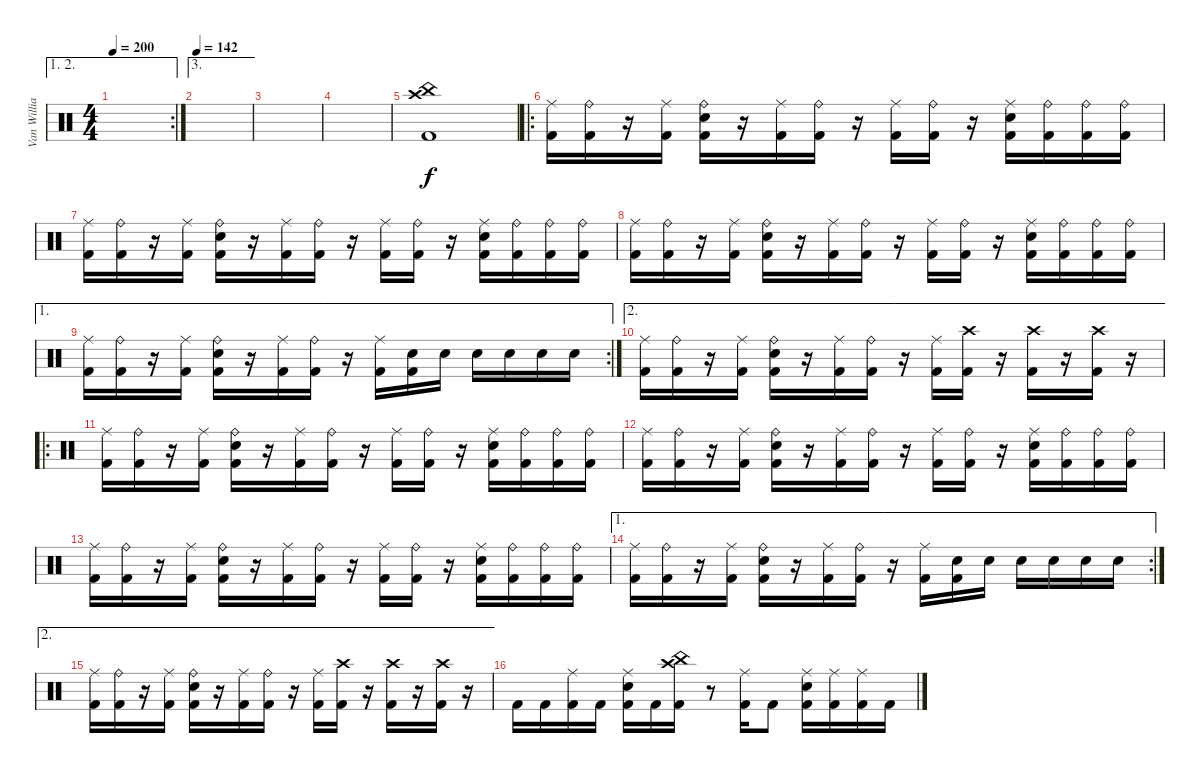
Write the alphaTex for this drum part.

\track ("Van Williams" "Van Willia") {instrument percussion}
\staff {score}
\articulation defaults
\ae (1 2)
\rc 2
\ts (4 4)
\tempo 200
\clef neutral
\ks c
|
\ae 3
\tempo 142
|
|
|
("Crash high (hit)" "China (hit)" "Kick (hit) 2").1 |
\ro
("Ride (middle)" "Kick (hit) 2").16 ("Ride (bell)" "Kick (hit) 2").16 r.16 ("Ride (middle)" "Kick (hit) 2").16 ("Ride (bell)" "Kick (hit) 2" "Electric Snare (hit)").16 r.16 ("Ride (middle)" "Kick (hit) 2").16 ("Ride (bell)" "Kick (hit) 2").16 r.16 ("Ride (middle)" "Kick (hit) 2").16 ("Ride (bell)" "Kick (hit) 2").16 r.16 ("Ride (middle)" "Kick (hit) 2" "Electric Snare (hit)").16 ("Ride (bell)" "Kick (hit) 2").16 ("Ride (bell)" "Kick (hit) 2").16 ("Ride (bell)" "Kick (hit) 2").16 |
("Ride (middle)" "Kick (hit) 2").16 ("Ride (bell)" "Kick (hit) 2").16 r.16 ("Ride (middle)" "Kick (hit) 2").16 ("Ride (bell)" "Kick (hit) 2" "Electric Snare (hit)").16 r.16 ("Ride (middle)" "Kick (hit) 2").16 ("Ride (bell)" "Kick (hit) 2").16 r.16 ("Ride (middle)" "Kick (hit) 2").16 ("Ride (bell)" "Kick (hit) 2").16 r.16 ("Ride (middle)" "Kick (hit) 2" "Electric Snare (hit)").16 ("Ride (bell)" "Kick (hit) 2").16 ("Ride (bell)" "Kick (hit) 2").16 ("Ride (bell)" "Kick (hit) 2").16 |
("Ride (middle)" "Kick (hit) 2").16 ("Ride (bell)" "Kick (hit) 2").16 r.16 ("Ride (middle)" "Kick (hit) 2").16 ("Ride (bell)" "Kick (hit) 2" "Electric Snare (hit)").16 r.16 ("Ride (middle)" "Kick (hit) 2").16 ("Ride (bell)" "Kick (hit) 2").16 r.16 ("Ride (middle)" "Kick (hit) 2").16 ("Ride (bell)" "Kick (hit) 2").16 r.16 ("Ride (middle)" "Kick (hit) 2" "Electric Snare (hit)").16 ("Ride (bell)" "Kick (hit) 2").16 ("Ride (bell)" "Kick (hit) 2").16 ("Ride (bell)" "Kick (hit) 2").16 |
\ae 1
\rc 2
("Ride (middle)" "Kick (hit) 2").16 ("Ride (bell)" "Kick (hit) 2").16 r.16 ("Ride (middle)" "Kick (hit) 2").16 ("Ride (bell)" "Kick (hit) 2" "Electric Snare (hit)").16 r.16 ("Ride (middle)" "Kick (hit) 2").16 ("Ride (bell)" "Kick (hit) 2").16 r.16 ("Ride (middle)" "Kick (hit) 2").16 ("Kick (hit) 2" "Electric Snare (hit)").16 "Electric Snare (hit)".16 "Electric Snare (hit)".16 "Electric Snare (hit)".16 "Electric Snare (hit)".16 "Electric Snare (hit)".16 |
\ae 2
("Ride (middle)" "Kick (hit) 2").16 ("Ride (bell)" "Kick (hit) 2").16 r.16 ("Ride (middle)" "Kick (hit) 2").16 ("Ride (bell)" "Kick (hit) 2" "Electric Snare (hit)").16 r.16 ("Ride (middle)" "Kick (hit) 2").16 ("Ride (bell)" "Kick (hit) 2").16 r.16 ("Ride (middle)" "Kick (hit) 2").16 ("Crash high (hit)" "Kick (hit) 2").16 r.16 ("Crash high (hit)" "Kick (hit) 2").16 r.16 ("Crash high (hit)" "Kick (hit) 2").16 r.16 |
\ro
("Ride (middle)" "Kick (hit) 2").16 ("Ride (bell)" "Kick (hit) 2").16 r.16 ("Ride (middle)" "Kick (hit) 2").16 ("Ride (bell)" "Kick (hit) 2" "Electric Snare (hit)").16 r.16 ("Ride (middle)" "Kick (hit) 2").16 ("Ride (bell)" "Kick (hit) 2").16 r.16 ("Ride (middle)" "Kick (hit) 2").16 ("Ride (bell)" "Kick (hit) 2").16 r.16 ("Ride (middle)" "Kick (hit) 2" "Electric Snare (hit)").16 ("Ride (bell)" "Kick (hit) 2").16 ("Ride (bell)" "Kick (hit) 2").16 ("Ride (bell)" "Kick (hit) 2").16 |
("Ride (middle)" "Kick (hit) 2").16 ("Ride (bell)" "Kick (hit) 2").16 r.16 ("Ride (middle)" "Kick (hit) 2").16 ("Ride (bell)" "Kick (hit) 2" "Electric Snare (hit)").16 r.16 ("Ride (middle)" "Kick (hit) 2").16 ("Ride (bell)" "Kick (hit) 2").16 r.16 ("Ride (middle)" "Kick (hit) 2").16 ("Ride (bell)" "Kick (hit) 2").16 r.16 ("Ride (middle)" "Kick (hit) 2" "Electric Snare (hit)").16 ("Ride (bell)" "Kick (hit) 2").16 ("Ride (bell)" "Kick (hit) 2").16 ("Ride (bell)" "Kick (hit) 2").16 |
("Ride (middle)" "Kick (hit) 2").16 ("Ride (bell)" "Kick (hit) 2").16 r.16 ("Ride (middle)" "Kick (hit) 2").16 ("Ride (bell)" "Kick (hit) 2" "Electric Snare (hit)").16 r.16 ("Ride (middle)" "Kick (hit) 2").16 ("Ride (bell)" "Kick (hit) 2").16 r.16 ("Ride (middle)" "Kick (hit) 2").16 ("Ride (bell)" "Kick (hit) 2").16 r.16 ("Ride (middle)" "Kick (hit) 2" "Electric Snare (hit)").16 ("Ride (bell)" "Kick (hit) 2").16 ("Ride (bell)" "Kick (hit) 2").16 ("Ride (bell)" "Kick (hit) 2").16 |
\ae 1
\rc 2
("Ride (middle)" "Kick (hit) 2").16 ("Ride (bell)" "Kick (hit) 2").16 r.16 ("Ride (middle)" "Kick (hit) 2").16 ("Ride (bell)" "Kick (hit) 2" "Electric Snare (hit)").16 r.16 ("Ride (middle)" "Kick (hit) 2").16 ("Ride (bell)" "Kick (hit) 2").16 r.16 ("Ride (middle)" "Kick (hit) 2").16 ("Kick (hit) 2" "Electric Snare (hit)").16 "Electric Snare (hit)".16 "Electric Snare (hit)".16 "Electric Snare (hit)".16 "Electric Snare (hit)".16 "Electric Snare (hit)".16 |
\ae 2
("Ride (middle)" "Kick (hit) 2").16 ("Ride (bell)" "Kick (hit) 2").16 r.16 ("Ride (middle)" "Kick (hit) 2").16 ("Ride (bell)" "Kick (hit) 2" "Electric Snare (hit)").16 r.16 ("Ride (middle)" "Kick (hit) 2").16 ("Ride (bell)" "Kick (hit) 2").16 r.16 ("Ride (middle)" "Kick (hit) 2").16 ("Crash high (hit)" "Kick (hit) 2").16 r.16 ("Crash high (hit)" "Kick (hit) 2").16 r.16 ("Crash high (hit)" "Kick (hit) 2").16 r.16 |
"Kick (hit) 2".16 "Kick (hit) 2".16 ("Ride (middle)" "Kick (hit) 2").16 "Kick (hit) 2".16 ("Ride (middle)" "Kick (hit) 2" "Electric Snare (hit)").16 "Kick (hit) 2".16 ("Crash high (hit)" "China (hit)" "Kick (hit) 2").16 r.8 ("Ride (middle)" "Kick (hit) 2").16 "Kick (hit) 2".8 ("Ride (middle)" "Kick (hit) 2" "Electric Snare (hit)").16 ("Ride (middle)" "Kick (hit) 2").16 ("Ride (middle)" "Kick (hit) 2").16 "Kick (hit) 2".16
